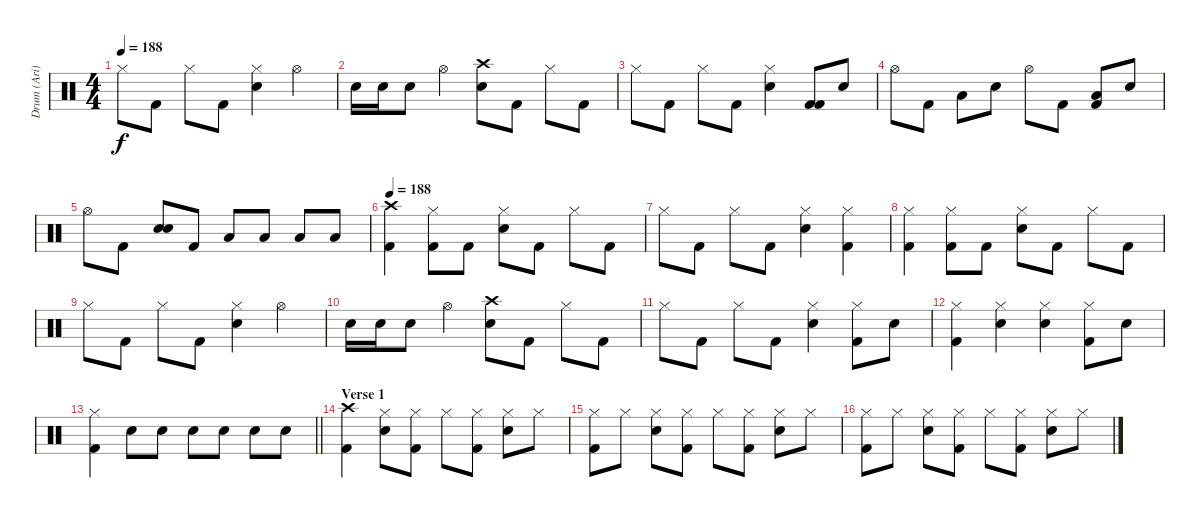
\track ("Drum (Ari)" "Drum (Ari)") {instrument percussion}
\staff {score}
\articulation defaults
\ts (4 4)
\tempo 188
\clef neutral
\ks c "Hi-Hat (closed)".8{dy f} "Kick (hit) 2".8 "Hi-Hat (closed)".8 "Kick (hit) 2".8
("Hi-Hat (closed)" "Electric Snare (hit)").4 "Hi-Hat (open)".4 |
"Electric Snare (hit)".16{volume 8} "Electric Snare (hit)".16 "Electric Snare (hit)".8{volume 13} "Hi-Hat (open)".4 ("Crash high (hit)" "Electric Snare (hit)").8 "Kick (hit) 2".8 "Hi-Hat (closed)".8 "Kick (hit) 2".8 |
"Hi-Hat (closed)".8 "Kick (hit) 2".8 "Hi-Hat (closed)".8 "Kick (hit) 2".8 ("Hi-Hat (closed)" "Electric Snare (hit)").4 ("Kick (hit) 2" "Kick (hit) 2").8 "Electric Snare (hit)".8 |
"Hi-Hat (open)".8 "Kick (hit) 2".8 "Low Floor Tom (hit)".8 "Electric Snare (hit)".8 "Hi-Hat (open)".8 "Kick (hit) 2".8 ("Kick (hit) 2" "Low Floor Tom (hit)").8 "Electric Snare (hit)".8 |
"Hi-Hat (open)".8 "Kick (hit) 2".8 ("Electric Snare (hit)" "Electric Snare (hit)").8 "Kick (hit) 2".8 "Low Tom (hit)".8 "Low Tom (hit)".8 "Low Floor Tom (hit)".8 "Low Floor Tom (hit)".8 |
\tempo 188
("Crash high (hit)" "Kick (hit) 2").4 ("Hi-Hat (closed)" "Kick (hit) 2").8 "Kick (hit) 2".8 ("Hi-Hat (closed)" "Electric Snare (hit)").8 "Kick (hit) 2".8 "Hi-Hat (closed)".8 "Kick (hit) 2".8 |
"Hi-Hat (closed)".8 "Kick (hit) 2".8 "Hi-Hat (closed)".8 "Kick (hit) 2".8 ("Hi-Hat (closed)" "Electric Snare (hit)").4 ("Hi-Hat (closed)" "Kick (hit) 2").4 |
("Hi-Hat (closed)" "Kick (hit) 2").4 ("Hi-Hat (closed)" "Kick (hit) 2").8 "Kick (hit) 2".8 ("Hi-Hat (closed)" "Electric Snare (hit)").8 "Kick (hit) 2".8 "Hi-Hat (closed)".8 "Kick (hit) 2".8 |
"Hi-Hat (closed)".8 "Kick (hit) 2".8 "Hi-Hat (closed)".8 "Kick (hit) 2".8 ("Hi-Hat (closed)" "Electric Snare (hit)").4 "Hi-Hat (open)".4 |
"Electric Snare (hit)".16{volume 8} "Electric Snare (hit)".16 "Electric Snare (hit)".8{volume 13} "Hi-Hat (open)".4 ("Crash high (hit)" "Electric Snare (hit)").8 "Kick (hit) 2".8 "Hi-Hat (closed)".8 "Kick (hit) 2".8 |
"Hi-Hat (closed)".8 "Kick (hit) 2".8 "Hi-Hat (closed)".8 "Kick (hit) 2".8 ("Hi-Hat (closed)" "Electric Snare (hit)").4 ("Hi-Hat (closed)" "Kick (hit) 2").8 "Electric Snare (hit)".8 |
("Hi-Hat (closed)" "Kick (hit) 2").4 ("Hi-Hat (closed)" "Electric Snare (hit)").4 ("Hi-Hat (closed)" "Electric Snare (hit)").4 ("Hi-Hat (closed)" "Kick (hit) 2").8 "Electric Snare (hit)".8 |
\barLineRight lightlight
("Hi-Hat (closed)" "Kick (hit) 2").4 "Electric Snare (hit)".8 "Electric Snare (hit)".8 "Electric Snare (hit)".8 "Electric Snare (hit)".8 "Electric Snare (hit)".8 "Electric Snare (hit)".8 |
\section ("" "Verse 1")
("Crash high (hit)" "Kick (hit) 2").4 ("Hi-Hat (closed)" "Electric Snare (hit)").8 ("Hi-Hat (closed)" "Kick (hit) 2").8 "Hi-Hat (closed)".8 ("Hi-Hat (closed)" "Kick (hit) 2").8 ("Hi-Hat (closed)" "Electric Snare (hit)").8 "Hi-Hat (closed)".8 |
("Hi-Hat (closed)" "Kick (hit) 2").8 "Hi-Hat (closed)".8 ("Hi-Hat (closed)" "Electric Snare (hit)").8 ("Hi-Hat (closed)" "Kick (hit) 2").8 "Hi-Hat (closed)".8 ("Hi-Hat (closed)" "Kick (hit) 2").8 ("Hi-Hat (closed)" "Electric Snare (hit)").8 "Hi-Hat (closed)".8 |
("Hi-Hat (closed)" "Kick (hit) 2").8 "Hi-Hat (closed)".8 ("Hi-Hat (closed)" "Electric Snare (hit)").8 ("Hi-Hat (closed)" "Kick (hit) 2").8 "Hi-Hat (closed)".8 ("Hi-Hat (closed)" "Kick (hit) 2").8 ("Hi-Hat (closed)" "Electric Snare (hit)").8 "Hi-Hat (closed)".8
